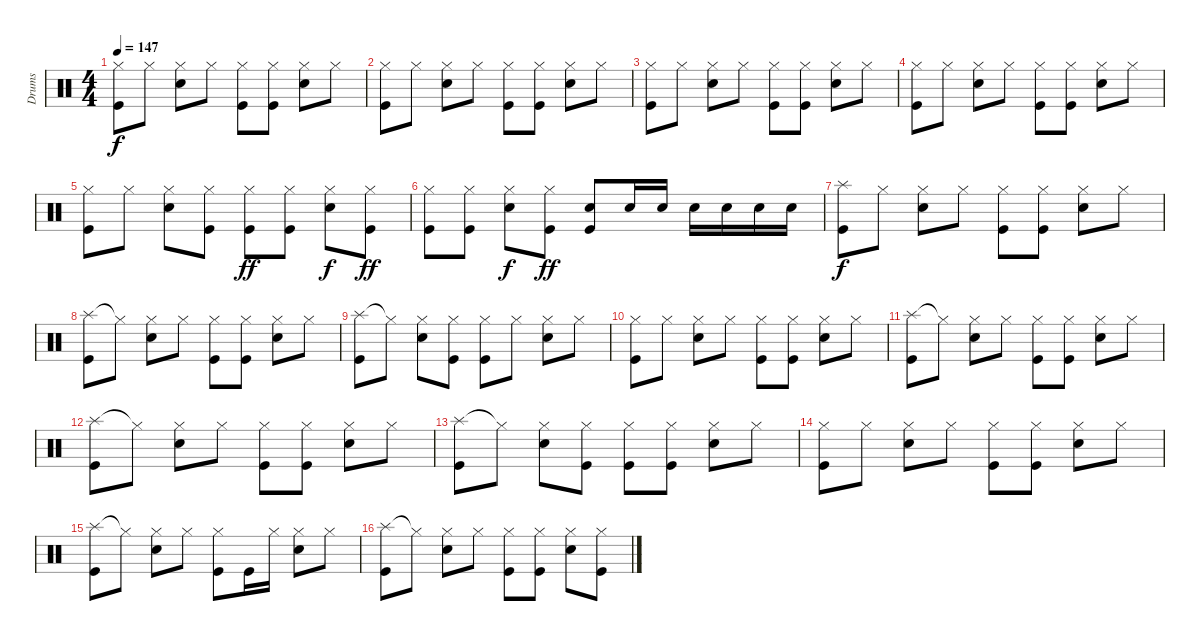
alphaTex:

\track ("Drums" "Drums") {instrument percussion}
\staff {score}
\articulation defaults
\ts (4 4)
\tempo 147
\clef neutral
\ks c
("Hi-Hat (closed)" "Kick (hit)").8{dy f} "Hi-Hat (closed)".8 ("Hi-Hat (closed)" "Snare (hit) 2").8 "Hi-Hat (closed)".8 ("Hi-Hat (closed)" "Kick (hit)").8 ("Hi-Hat (closed)" "Kick (hit)").8 ("Hi-Hat (closed)" "Snare (hit) 2").8 "Hi-Hat (closed)".8 |
("Hi-Hat (closed)" "Kick (hit)").8 "Hi-Hat (closed)".8 ("Hi-Hat (closed)" "Snare (hit) 2").8 "Hi-Hat (closed)".8 ("Hi-Hat (closed)" "Kick (hit)").8 ("Hi-Hat (closed)" "Kick (hit)").8 ("Hi-Hat (closed)" "Snare (hit) 2").8 "Hi-Hat (closed)".8 |
("Hi-Hat (closed)" "Kick (hit)").8 "Hi-Hat (closed)".8 ("Hi-Hat (closed)" "Snare (hit) 2").8 "Hi-Hat (closed)".8 ("Hi-Hat (closed)" "Kick (hit)").8 ("Hi-Hat (closed)" "Kick (hit)").8 ("Hi-Hat (closed)" "Snare (hit) 2").8 "Hi-Hat (closed)".8 |
("Hi-Hat (closed)" "Kick (hit)").8 "Hi-Hat (closed)".8 ("Hi-Hat (closed)" "Snare (hit) 2").8 "Hi-Hat (closed)".8 ("Hi-Hat (closed)" "Kick (hit)").8 ("Hi-Hat (closed)" "Kick (hit)").8 ("Hi-Hat (closed)" "Snare (hit) 2").8 "Hi-Hat (closed)".8 |
("Hi-Hat (closed)" "Kick (hit)").8 "Hi-Hat (closed)".8 ("Hi-Hat (closed)" "Snare (hit) 2").8 ("Hi-Hat (closed)" "Kick (hit)").8 ("Hi-Hat (closed)" "Kick (hit)").8{dy ff} ("Hi-Hat (closed)" "Kick (hit)").8 ("Hi-Hat (closed)" "Snare (hit) 2").8{dy f} ("Hi-Hat (closed)" "Kick (hit)").8{dy ff} |
("Hi-Hat (closed)" "Kick (hit)").8 ("Hi-Hat (closed)" "Kick (hit)").8 ("Hi-Hat (closed)" "Snare (hit) 2").8{dy f} ("Hi-Hat (closed)" "Kick (hit)").8{dy ff} ("Snare (hit) 2" "Kick (hit)").8 "Snare (hit) 2".16 "Snare (hit) 2".16 "Snare (hit) 2".16 "Snare (hit) 2".16 "Snare (hit) 2".16 "Snare (hit) 2".16 |
("Splash (hit)" "Kick (hit)").8{dy f} "Hi-Hat (closed)".8 ("Hi-Hat (closed)" "Snare (hit) 2").8 "Hi-Hat (closed)".8 ("Hi-Hat (closed)" "Kick (hit)").8 ("Hi-Hat (closed)" "Kick (hit)").8 ("Hi-Hat (closed)" "Snare (hit) 2").8 "Hi-Hat (closed)".8 |
("Splash (hit)" "Kick (hit)").8 "Hi-Hat (closed)"{t}.8 ("Hi-Hat (closed)" "Snare (hit) 2").8 "Hi-Hat (closed)".8 ("Hi-Hat (closed)" "Kick (hit)").8 ("Hi-Hat (closed)" "Kick (hit)").8 ("Hi-Hat (closed)" "Snare (hit) 2").8 "Hi-Hat (closed)".8 |
("Splash (hit)" "Kick (hit)").8 "Hi-Hat (closed)"{t}.8 ("Hi-Hat (closed)" "Snare (hit) 2").8 ("Hi-Hat (closed)" "Kick (hit)").8 ("Hi-Hat (closed)" "Kick (hit)").8 "Hi-Hat (closed)".8 ("Hi-Hat (closed)" "Snare (hit) 2").8 "Hi-Hat (closed)".8 |
("Hi-Hat (closed)" "Kick (hit)").8 "Hi-Hat (closed)".8 ("Hi-Hat (closed)" "Snare (hit) 2").8 "Hi-Hat (closed)".8 ("Hi-Hat (closed)" "Kick (hit)").8 ("Hi-Hat (closed)" "Kick (hit)").8 ("Hi-Hat (closed)" "Snare (hit) 2").8 "Hi-Hat (closed)".8 |
("Splash (hit)" "Kick (hit)").8 "Hi-Hat (closed)"{t}.8 ("Hi-Hat (closed)" "Snare (hit) 2").8 "Hi-Hat (closed)".8 ("Hi-Hat (closed)" "Kick (hit)").8 ("Hi-Hat (closed)" "Kick (hit)").8 ("Hi-Hat (closed)" "Snare (hit) 2").8 "Hi-Hat (closed)".8 |
("Splash (hit)" "Kick (hit)").8 "Hi-Hat (closed)"{t}.8 ("Hi-Hat (closed)" "Snare (hit) 2").8 "Hi-Hat (closed)".8 ("Hi-Hat (closed)" "Kick (hit)").8 ("Hi-Hat (closed)" "Kick (hit)").8 ("Hi-Hat (closed)" "Snare (hit) 2").8 "Hi-Hat (closed)".8 |
("Splash (hit)" "Kick (hit)").8 "Hi-Hat (closed)"{t}.8 ("Hi-Hat (closed)" "Snare (hit) 2").8 ("Hi-Hat (closed)" "Kick (hit)").8 ("Hi-Hat (closed)" "Kick (hit)").8 ("Hi-Hat (closed)" "Kick (hit)").8 ("Hi-Hat (closed)" "Snare (hit) 2").8 "Hi-Hat (closed)".8 |
("Hi-Hat (closed)" "Kick (hit)").8 "Hi-Hat (closed)".8 ("Hi-Hat (closed)" "Snare (hit) 2").8 "Hi-Hat (closed)".8 ("Hi-Hat (closed)" "Kick (hit)").8 ("Hi-Hat (closed)" "Kick (hit)").8 ("Hi-Hat (closed)" "Snare (hit) 2").8 "Hi-Hat (closed)".8 |
("Splash (hit)" "Kick (hit)").8 "Hi-Hat (closed)"{t}.8 ("Hi-Hat (closed)" "Snare (hit) 2").8 "Hi-Hat (closed)".8 ("Hi-Hat (closed)" "Kick (hit)").8 "Kick (hit)".16 "Hi-Hat (closed)".16 ("Hi-Hat (closed)" "Snare (hit) 2").8 "Hi-Hat (closed)".8 |
("Splash (hit)" "Kick (hit)").8 "Hi-Hat (closed)"{t}.8 ("Hi-Hat (closed)" "Snare (hit) 2").8 "Hi-Hat (closed)".8 ("Hi-Hat (closed)" "Kick (hit)").8 ("Hi-Hat (closed)" "Kick (hit)").8 ("Hi-Hat (closed)" "Snare (hit) 2").8 ("Hi-Hat (closed)" "Kick (hit)").8
